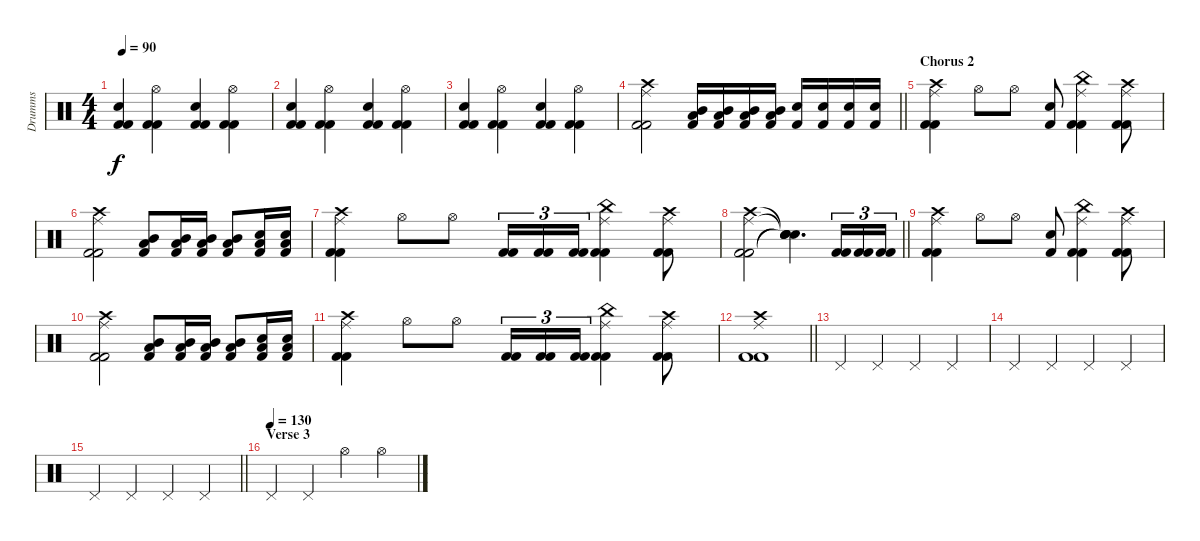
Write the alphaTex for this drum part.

\track ("Drumms" "Drumms") {instrument percussion}
\staff {score}
\articulation defaults
\ts (4 4)
\tempo 90
\clef neutral
\ks c
("Kick (hit) 2" "Snare (hit) 2" "Kick (hit) 2").4{dy f} ("Kick (hit) 2" "Hi-Hat (open)" "Kick (hit) 2").4 ("Kick (hit) 2" "Snare (hit) 2" "Kick (hit) 2").4 ("Kick (hit) 2" "Hi-Hat (open)" "Kick (hit) 2").4 |
("Kick (hit) 2" "Snare (hit) 2" "Kick (hit) 2").4 ("Kick (hit) 2" "Hi-Hat (open)" "Kick (hit) 2").4 ("Kick (hit) 2" "Snare (hit) 2" "Kick (hit) 2").4 ("Kick (hit) 2" "Hi-Hat (open)" "Kick (hit) 2").4 |
("Kick (hit) 2" "Snare (hit) 2" "Kick (hit) 2").4 ("Kick (hit) 2" "Hi-Hat (open)" "Kick (hit) 2").4 ("Kick (hit) 2" "Snare (hit) 2" "Kick (hit) 2").4 ("Kick (hit) 2" "Hi-Hat (open)" "Kick (hit) 2").4 |
\barLineRight lightlight
("Crash high (hit)" "Ride (middle)" "Kick (hit) 2" "Kick (hit) 2").2 ("Mid Tom (hit)" "Kick (hit) 2" "Low Floor Tom (hit)").16 ("Mid Tom (hit)" "Kick (hit) 2" "Low Floor Tom (hit)").16 ("Mid Tom (hit)" "Kick (hit) 2" "Low Floor Tom (hit)").16 ("Mid Tom (hit)" "Kick (hit) 2" "Low Floor Tom (hit)").16 ("Snare (hit) 2" "Kick (hit) 2").16 ("Snare (hit) 2" "Kick (hit) 2").16 ("Snare (hit) 2" "Kick (hit) 2").16 ("Snare (hit) 2" "Kick (hit) 2").16 |
\section ("" "Chorus 2")
("Crash high (hit)" "Ride (middle)" "Kick (hit) 2" "Kick (hit) 2").4 "Hi-Hat (open)".8 "Hi-Hat (open)".8 ("Snare (hit) 2" "Kick (hit) 2").8 ("China (hit)" "Ride (middle)" "Kick (hit) 2" "Kick (hit) 2").4 ("Crash high (hit)" "Ride (middle)" "Kick (hit) 2" "Kick (hit) 2").8 |
("Crash high (hit)" "Ride (middle)" "Kick (hit) 2" "Kick (hit) 2").2 ("Low Floor Tom (hit)" "Kick (hit) 2" "Mid Tom (hit)").8 ("Low Floor Tom (hit)" "Kick (hit) 2" "Mid Tom (hit)").16 ("Low Floor Tom (hit)" "Kick (hit) 2" "Mid Tom (hit)").16 ("Low Floor Tom (hit)" "Kick (hit) 2" "Mid Tom (hit)").8 ("Low Floor Tom (hit)" "Snare (hit) 2" "Kick (hit) 2").16 ("Low Floor Tom (hit)" "Snare (hit) 2" "Kick (hit) 2").16 |
("Crash high (hit)" "Ride (middle)" "Kick (hit) 2" "Kick (hit) 2").4 "Hi-Hat (open)".8 "Hi-Hat (open)".8 ("Kick (hit) 2" "Kick (hit) 2").16{tu (3 2)} ("Kick (hit) 2" "Kick (hit) 2").16{tu (3 2)} ("Kick (hit) 2" "Kick (hit) 2").16{tu (3 2)} ("China (hit)" "Ride (middle)" "Kick (hit) 2" "Kick (hit) 2").4 ("Crash high (hit)" "Ride (middle)" "Kick (hit) 2" "Kick (hit) 2").8 |
\barLineRight lightlight
("Crash high (hit)" "Ride (middle)" "Kick (hit) 2" "Kick (hit) 2").2 ("Snare (hit)"{t} "Snare (hit)"{t} "Snare (hit)"{t} "Snare (hit)"{t}).4{d} ("Kick (hit) 2" "Kick (hit) 2").16{tu (3 2)} ("Kick (hit) 2" "Kick (hit) 2").16{tu (3 2)} ("Kick (hit) 2" "Kick (hit) 2").16{tu (3 2)} |
("Crash high (hit)" "Ride (middle)" "Kick (hit) 2" "Kick (hit) 2").4 "Hi-Hat (open)".8 "Hi-Hat (open)".8 ("Snare (hit) 2" "Kick (hit) 2").8 ("China (hit)" "Ride (middle)" "Kick (hit) 2" "Kick (hit) 2").4 ("Crash high (hit)" "Ride (middle)" "Kick (hit) 2" "Kick (hit) 2").8 |
("Crash high (hit)" "Ride (middle)" "Kick (hit) 2" "Kick (hit) 2").2 ("Low Floor Tom (hit)" "Kick (hit) 2" "Mid Tom (hit)").8 ("Low Floor Tom (hit)" "Kick (hit) 2" "Mid Tom (hit)").16 ("Low Floor Tom (hit)" "Kick (hit) 2" "Mid Tom (hit)").16 ("Low Floor Tom (hit)" "Kick (hit) 2" "Mid Tom (hit)").8 ("Low Floor Tom (hit)" "Snare (hit) 2" "Kick (hit) 2").16 ("Low Floor Tom (hit)" "Snare (hit) 2" "Kick (hit) 2").16 |
("Crash high (hit)" "Ride (middle)" "Kick (hit) 2" "Kick (hit) 2").4 "Hi-Hat (open)".8 "Hi-Hat (open)".8 ("Kick (hit) 2" "Kick (hit) 2").16{tu (3 2)} ("Kick (hit) 2" "Kick (hit) 2").16{tu (3 2)} ("Kick (hit) 2" "Kick (hit) 2").16{tu (3 2)} ("China (hit)" "Ride (middle)" "Kick (hit) 2" "Kick (hit) 2").4 ("Crash high (hit)" "Ride (middle)" "Kick (hit) 2" "Kick (hit) 2").8 |
\barLineRight lightlight
("Crash high (hit)" "Ride (middle)" "Kick (hit) 2" "Kick (hit) 2").1 |
"Pedal Hi-Hat (hit)".4 "Pedal Hi-Hat (hit)".4 "Pedal Hi-Hat (hit)".4 "Pedal Hi-Hat (hit)".4 |
"Pedal Hi-Hat (hit)".4 "Pedal Hi-Hat (hit)".4 "Pedal Hi-Hat (hit)".4 "Pedal Hi-Hat (hit)".4 |
\barLineRight lightlight "Pedal Hi-Hat (hit)".4 "Pedal Hi-Hat (hit)".4 "Pedal Hi-Hat (hit)".4 "Pedal Hi-Hat (hit)".4
|
\section ("" "Verse 3")
\tempo (130)
"Pedal Hi-Hat (hit)".4 "Pedal Hi-Hat (hit)".4 "Hi-Hat (open)".4 "Hi-Hat (open)".4
